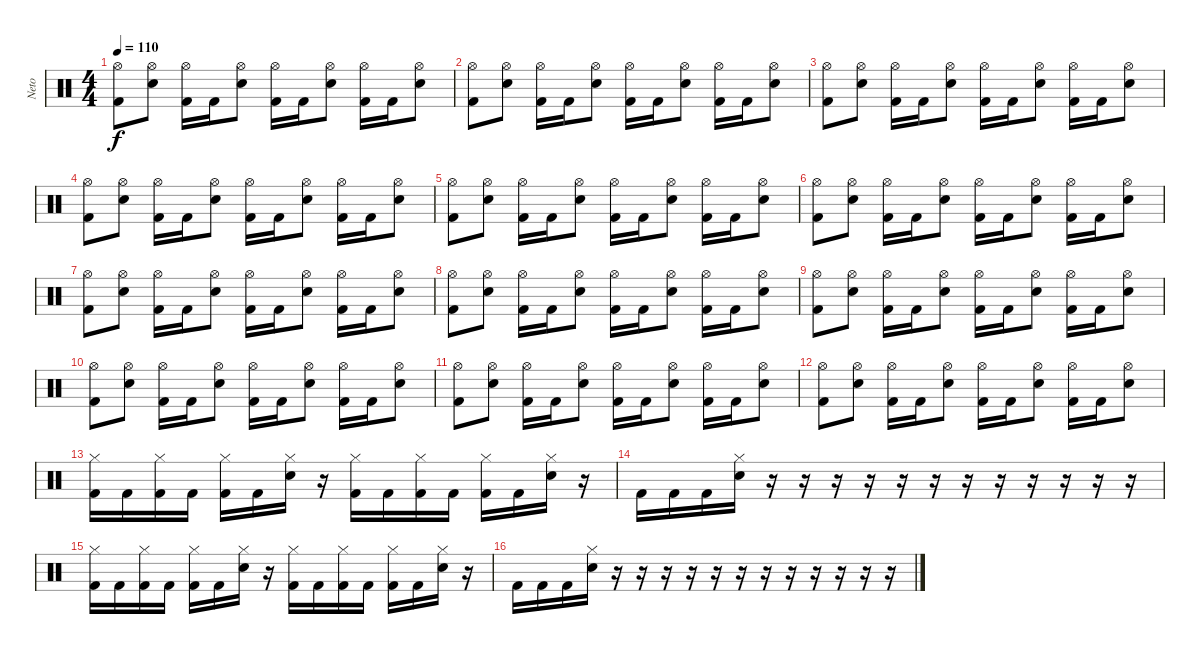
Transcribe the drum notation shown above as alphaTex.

\track ("Neto" "Neto") {instrument percussion}
\staff {score}
\articulation defaults
\ts (4 4)
\tempo 110
\clef neutral
\ks c
("Hi-Hat (open)" "Kick (hit) 2").8{dy f} ("Hi-Hat (open)" "Electric Snare (hit)").8 ("Hi-Hat (open)" "Kick (hit) 2").16 "Kick (hit) 2".16 ("Hi-Hat (open)" "Electric Snare (hit)").8 ("Hi-Hat (open)" "Kick (hit) 2").16 "Kick (hit) 2".16 ("Hi-Hat (open)" "Electric Snare (hit)").8 ("Hi-Hat (open)" "Kick (hit) 2").16 "Kick (hit) 2".16 ("Hi-Hat (open)" "Electric Snare (hit)").8 |
("Hi-Hat (open)" "Kick (hit) 2").8 ("Hi-Hat (open)" "Electric Snare (hit)").8 ("Hi-Hat (open)" "Kick (hit) 2").16 "Kick (hit) 2".16 ("Hi-Hat (open)" "Electric Snare (hit)").8 ("Hi-Hat (open)" "Kick (hit) 2").16 "Kick (hit) 2".16 ("Hi-Hat (open)" "Electric Snare (hit)").8 ("Hi-Hat (open)" "Kick (hit) 2").16 "Kick (hit) 2".16 ("Hi-Hat (open)" "Electric Snare (hit)").8 |
("Hi-Hat (open)" "Kick (hit) 2").8 ("Hi-Hat (open)" "Electric Snare (hit)").8 ("Hi-Hat (open)" "Kick (hit) 2").16 "Kick (hit) 2".16 ("Hi-Hat (open)" "Electric Snare (hit)").8 ("Hi-Hat (open)" "Kick (hit) 2").16 "Kick (hit) 2".16 ("Hi-Hat (open)" "Electric Snare (hit)").8 ("Hi-Hat (open)" "Kick (hit) 2").16 "Kick (hit) 2".16 ("Hi-Hat (open)" "Electric Snare (hit)").8 |
("Hi-Hat (open)" "Kick (hit) 2").8 ("Hi-Hat (open)" "Electric Snare (hit)").8 ("Hi-Hat (open)" "Kick (hit) 2").16 "Kick (hit) 2".16 ("Hi-Hat (open)" "Electric Snare (hit)").8 ("Hi-Hat (open)" "Kick (hit) 2").16 "Kick (hit) 2".16 ("Hi-Hat (open)" "Electric Snare (hit)").8 ("Hi-Hat (open)" "Kick (hit) 2").16 "Kick (hit) 2".16 ("Hi-Hat (open)" "Electric Snare (hit)").8 |
("Hi-Hat (open)" "Kick (hit) 2").8 ("Hi-Hat (open)" "Electric Snare (hit)").8 ("Hi-Hat (open)" "Kick (hit) 2").16 "Kick (hit) 2".16 ("Hi-Hat (open)" "Electric Snare (hit)").8 ("Hi-Hat (open)" "Kick (hit) 2").16 "Kick (hit) 2".16 ("Hi-Hat (open)" "Electric Snare (hit)").8 ("Hi-Hat (open)" "Kick (hit) 2").16 "Kick (hit) 2".16 ("Hi-Hat (open)" "Electric Snare (hit)").8 |
("Hi-Hat (open)" "Kick (hit) 2").8 ("Hi-Hat (open)" "Electric Snare (hit)").8 ("Hi-Hat (open)" "Kick (hit) 2").16 "Kick (hit) 2".16 ("Hi-Hat (open)" "Electric Snare (hit)").8 ("Hi-Hat (open)" "Kick (hit) 2").16 "Kick (hit) 2".16 ("Hi-Hat (open)" "Electric Snare (hit)").8 ("Hi-Hat (open)" "Kick (hit) 2").16 "Kick (hit) 2".16 ("Hi-Hat (open)" "Electric Snare (hit)").8 |
("Hi-Hat (open)" "Kick (hit) 2").8 ("Hi-Hat (open)" "Electric Snare (hit)").8 ("Hi-Hat (open)" "Kick (hit) 2").16 "Kick (hit) 2".16 ("Hi-Hat (open)" "Electric Snare (hit)").8 ("Hi-Hat (open)" "Kick (hit) 2").16 "Kick (hit) 2".16 ("Hi-Hat (open)" "Electric Snare (hit)").8 ("Hi-Hat (open)" "Kick (hit) 2").16 "Kick (hit) 2".16 ("Hi-Hat (open)" "Electric Snare (hit)").8 |
("Hi-Hat (open)" "Kick (hit) 2").8 ("Hi-Hat (open)" "Electric Snare (hit)").8 ("Hi-Hat (open)" "Kick (hit) 2").16 "Kick (hit) 2".16 ("Hi-Hat (open)" "Electric Snare (hit)").8 ("Hi-Hat (open)" "Kick (hit) 2").16 "Kick (hit) 2".16 ("Hi-Hat (open)" "Electric Snare (hit)").8 ("Hi-Hat (open)" "Kick (hit) 2").16 "Kick (hit) 2".16 ("Hi-Hat (open)" "Electric Snare (hit)").8 |
("Hi-Hat (open)" "Kick (hit) 2").8 ("Hi-Hat (open)" "Electric Snare (hit)").8 ("Hi-Hat (open)" "Kick (hit) 2").16 "Kick (hit) 2".16 ("Hi-Hat (open)" "Electric Snare (hit)").8 ("Hi-Hat (open)" "Kick (hit) 2").16 "Kick (hit) 2".16 ("Hi-Hat (open)" "Electric Snare (hit)").8 ("Hi-Hat (open)" "Kick (hit) 2").16 "Kick (hit) 2".16 ("Hi-Hat (open)" "Electric Snare (hit)").8 |
("Hi-Hat (open)" "Kick (hit) 2").8 ("Hi-Hat (open)" "Electric Snare (hit)").8 ("Hi-Hat (open)" "Kick (hit) 2").16 "Kick (hit) 2".16 ("Hi-Hat (open)" "Electric Snare (hit)").8 ("Hi-Hat (open)" "Kick (hit) 2").16 "Kick (hit) 2".16 ("Hi-Hat (open)" "Electric Snare (hit)").8 ("Hi-Hat (open)" "Kick (hit) 2").16 "Kick (hit) 2".16 ("Hi-Hat (open)" "Electric Snare (hit)").8 |
("Hi-Hat (open)" "Kick (hit) 2").8 ("Hi-Hat (open)" "Electric Snare (hit)").8 ("Hi-Hat (open)" "Kick (hit) 2").16 "Kick (hit) 2".16 ("Hi-Hat (open)" "Electric Snare (hit)").8 ("Hi-Hat (open)" "Kick (hit) 2").16 "Kick (hit) 2".16 ("Hi-Hat (open)" "Electric Snare (hit)").8 ("Hi-Hat (open)" "Kick (hit) 2").16 "Kick (hit) 2".16 ("Hi-Hat (open)" "Electric Snare (hit)").8 |
("Hi-Hat (open)" "Kick (hit) 2").8 ("Hi-Hat (open)" "Electric Snare (hit)").8 ("Hi-Hat (open)" "Kick (hit) 2").16 "Kick (hit) 2".16 ("Hi-Hat (open)" "Electric Snare (hit)").8 ("Hi-Hat (open)" "Kick (hit) 2").16 "Kick (hit) 2".16 ("Hi-Hat (open)" "Electric Snare (hit)").8 ("Hi-Hat (open)" "Kick (hit) 2").16 "Kick (hit) 2".16 ("Hi-Hat (open)" "Electric Snare (hit)").8 |
("Hi-Hat (closed)" "Kick (hit) 2").16 "Kick (hit) 2".16 ("Hi-Hat (closed)" "Kick (hit) 2").16 "Kick (hit) 2".16 ("Hi-Hat (closed)" "Kick (hit) 2").16 "Kick (hit) 2".16 ("Hi-Hat (closed)" "Electric Snare (hit)").16 r.16 ("Hi-Hat (closed)" "Kick (hit) 2").16 "Kick (hit) 2".16 ("Hi-Hat (closed)" "Kick (hit) 2").16 "Kick (hit) 2".16 ("Hi-Hat (closed)" "Kick (hit) 2").16 "Kick (hit) 2".16 ("Hi-Hat (closed)" "Electric Snare (hit)").16 r.16 |
"Kick (hit) 2".16 "Kick (hit) 2".16 "Kick (hit) 2".16 ("Hi-Hat (closed)" "Electric Snare (hit)").16 r.16 r.16 r.16 r.16 r.16 r.16 r.16 r.16 r.16 r.16 r.16 r.16 |
("Hi-Hat (closed)" "Kick (hit) 2").16 "Kick (hit) 2".16 ("Hi-Hat (closed)" "Kick (hit) 2").16 "Kick (hit) 2".16 ("Hi-Hat (closed)" "Kick (hit) 2").16 "Kick (hit) 2".16 ("Hi-Hat (closed)" "Electric Snare (hit)").16 r.16 ("Hi-Hat (closed)" "Kick (hit) 2").16 "Kick (hit) 2".16 ("Hi-Hat (closed)" "Kick (hit) 2").16 "Kick (hit) 2".16 ("Hi-Hat (closed)" "Kick (hit) 2").16 "Kick (hit) 2".16 ("Hi-Hat (closed)" "Electric Snare (hit)").16 r.16 |
"Kick (hit) 2".16 "Kick (hit) 2".16 "Kick (hit) 2".16 ("Hi-Hat (closed)" "Electric Snare (hit)").16 r.16 r.16 r.16 r.16 r.16 r.16 r.16 r.16 r.16 r.16 r.16 r.16
